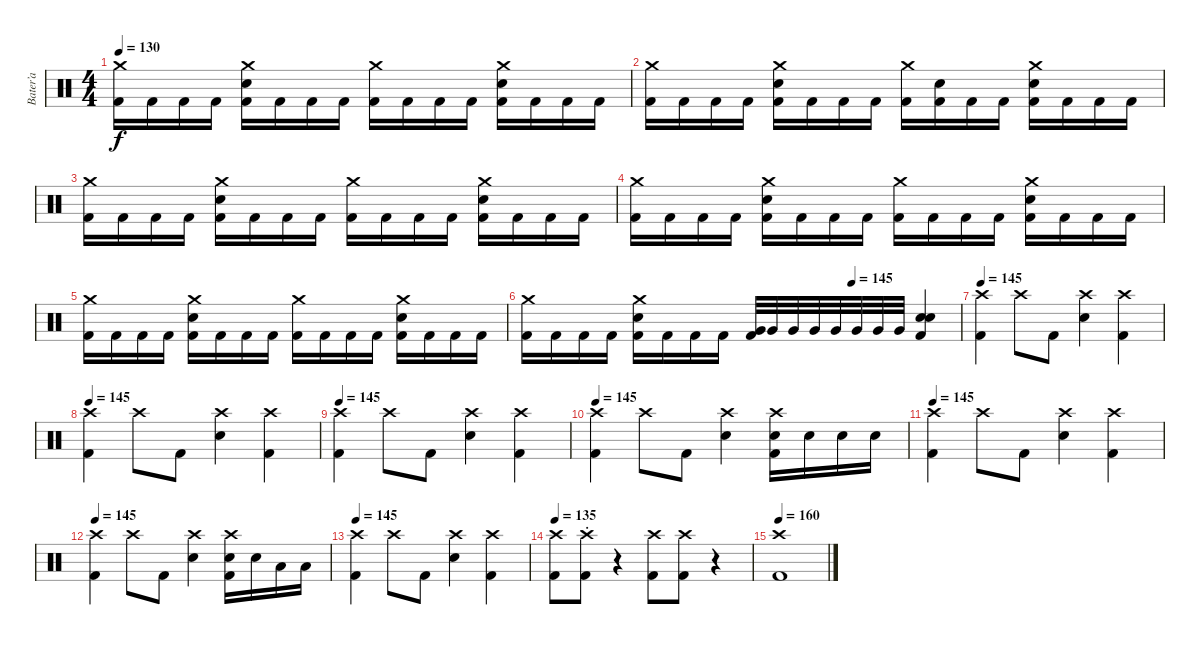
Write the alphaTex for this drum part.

\track ("Bater’a" "Bater’a") {instrument percussion}
\staff {score}
\articulation defaults
\ts (4 4)
\tempo 130
\clef neutral
\ks c
("Crash medium (hit)" "Kick (hit) 2").16{dy f} "Kick (hit) 2".16 "Kick (hit) 2".16 "Kick (hit) 2".16 ("Crash medium (hit)" "Electric Snare (hit)" "Kick (hit) 2").16 "Kick (hit) 2".16 "Kick (hit) 2".16 "Kick (hit) 2".16 ("Crash medium (hit)" "Kick (hit) 2").16 "Kick (hit) 2".16 "Kick (hit) 2".16 "Kick (hit) 2".16 ("Crash medium (hit)" "Electric Snare (hit)" "Kick (hit) 2").16 "Kick (hit) 2".16 "Kick (hit) 2".16 "Kick (hit) 2".16 |
("Crash medium (hit)" "Kick (hit) 2").16 "Kick (hit) 2".16 "Kick (hit) 2".16 "Kick (hit) 2".16 ("Crash medium (hit)" "Electric Snare (hit)" "Kick (hit) 2").16 "Kick (hit) 2".16 "Kick (hit) 2".16 "Kick (hit) 2".16 ("Crash medium (hit)" "Kick (hit) 2").16 ("Electric Snare (hit)" "Kick (hit) 2").16 "Kick (hit) 2".16 "Kick (hit) 2".16 ("Crash medium (hit)" "Electric Snare (hit)" "Kick (hit) 2").16 "Kick (hit) 2".16 "Kick (hit) 2".16 "Kick (hit) 2".16 |
("Crash medium (hit)" "Kick (hit) 2").16 "Kick (hit) 2".16 "Kick (hit) 2".16 "Kick (hit) 2".16 ("Crash medium (hit)" "Electric Snare (hit)" "Kick (hit) 2").16 "Kick (hit) 2".16 "Kick (hit) 2".16 "Kick (hit) 2".16 ("Crash medium (hit)" "Kick (hit) 2").16 "Kick (hit) 2".16 "Kick (hit) 2".16 "Kick (hit) 2".16 ("Crash medium (hit)" "Electric Snare (hit)" "Kick (hit) 2").16 "Kick (hit) 2".16 "Kick (hit) 2".16 "Kick (hit) 2".16 |
("Crash medium (hit)" "Kick (hit) 2").16 "Kick (hit) 2".16 "Kick (hit) 2".16 "Kick (hit) 2".16 ("Crash medium (hit)" "Electric Snare (hit)" "Kick (hit) 2").16 "Kick (hit) 2".16 "Kick (hit) 2".16 "Kick (hit) 2".16 ("Crash medium (hit)" "Kick (hit) 2").16 "Kick (hit) 2".16 "Kick (hit) 2".16 "Kick (hit) 2".16 ("Crash medium (hit)" "Electric Snare (hit)" "Kick (hit) 2").16 "Kick (hit) 2".16 "Kick (hit) 2".16 "Kick (hit) 2".16 |
("Crash medium (hit)" "Kick (hit) 2").16 "Kick (hit) 2".16 "Kick (hit) 2".16 "Kick (hit) 2".16 ("Crash medium (hit)" "Electric Snare (hit)" "Kick (hit) 2").16 "Kick (hit) 2".16 "Kick (hit) 2".16 "Kick (hit) 2".16 ("Crash medium (hit)" "Kick (hit) 2").16 "Kick (hit) 2".16 "Kick (hit) 2".16 "Kick (hit) 2".16 ("Crash medium (hit)" "Electric Snare (hit)" "Kick (hit) 2").16 "Kick (hit) 2".16 "Kick (hit) 2".16 "Kick (hit) 2".16 |
\tempo (145 0.75)
("Crash medium (hit)" "Kick (hit) 2").16 "Kick (hit) 2".16 "Kick (hit) 2".16 "Kick (hit) 2".16 ("Crash medium (hit)" "Electric Snare (hit)" "Kick (hit) 2").16 "Kick (hit) 2".16 "Kick (hit) 2".16 "Kick (hit) 2".16 ("Very Low Tom (hit)" "Kick (hit) 2").32 "Very Low Tom (hit)".32 "Very Low Tom (hit)".32 "Very Low Tom (hit)".32 "Very Low Tom (hit)".32 "Very Low Tom (hit)".32 "Very Low Tom (hit)".32 "Very Low Tom (hit)".32 ("Electric Snare (hit)" "Electric Snare (hit)" "Kick (hit) 2").4 |
\tempo 145
("Crash high (hit)" "Kick (hit) 2").4 "Crash high (hit)".8 "Kick (hit) 2".8 ("Crash high (hit)" "Electric Snare (hit)").4 ("Crash high (hit)" "Kick (hit) 2").4 |
\tempo 145
("Crash high (hit)" "Kick (hit) 2").4 "Crash high (hit)".8 "Kick (hit) 2".8 ("Crash high (hit)" "Electric Snare (hit)").4 ("Crash high (hit)" "Kick (hit) 2").4 |
\tempo 145
("Crash high (hit)" "Kick (hit) 2").4 "Crash high (hit)".8 "Kick (hit) 2".8 ("Crash high (hit)" "Electric Snare (hit)").4 ("Crash high (hit)" "Kick (hit) 2").4 |
\tempo 145
("Crash high (hit)" "Kick (hit) 2").4 "Crash high (hit)".8 "Kick (hit) 2".8 ("Crash high (hit)" "Electric Snare (hit)").4 ("Crash high (hit)" "Electric Snare (hit)" "Kick (hit) 2").16 "Electric Snare (hit)".16 "Electric Snare (hit)".16 "Electric Snare (hit)".16 |
\tempo 145
("Crash high (hit)" "Kick (hit) 2").4 "Crash high (hit)".8 "Kick (hit) 2".8 ("Crash high (hit)" "Electric Snare (hit)").4 ("Crash high (hit)" "Kick (hit) 2").4 |
\tempo 145
("Crash high (hit)" "Kick (hit) 2").4 "Crash high (hit)".8 "Kick (hit) 2".8 ("Crash high (hit)" "Electric Snare (hit)").4 ("Crash high (hit)" "Electric Snare (hit)" "Kick (hit) 2").16 "Electric Snare (hit)".16 "Low Tom (hit)".16 "Low Tom (hit)".16 |
\tempo 145
("Crash high (hit)" "Kick (hit) 2").4 "Crash high (hit)".8 "Kick (hit) 2".8 ("Crash high (hit)" "Electric Snare (hit)").4 ("Crash high (hit)" "Kick (hit) 2").4 |
\tempo 135
("Crash high (hit)" "Kick (hit) 2").8{volume 12} ("Crash high (hit)"{st} "Kick (hit) 2").8 r.4 ("Crash high (hit)" "Kick (hit) 2").8 ("Crash high (hit)" "Kick (hit) 2").8 r.4 |
\tempo 160
("Crash high (hit)" "Kick (hit) 2").1
